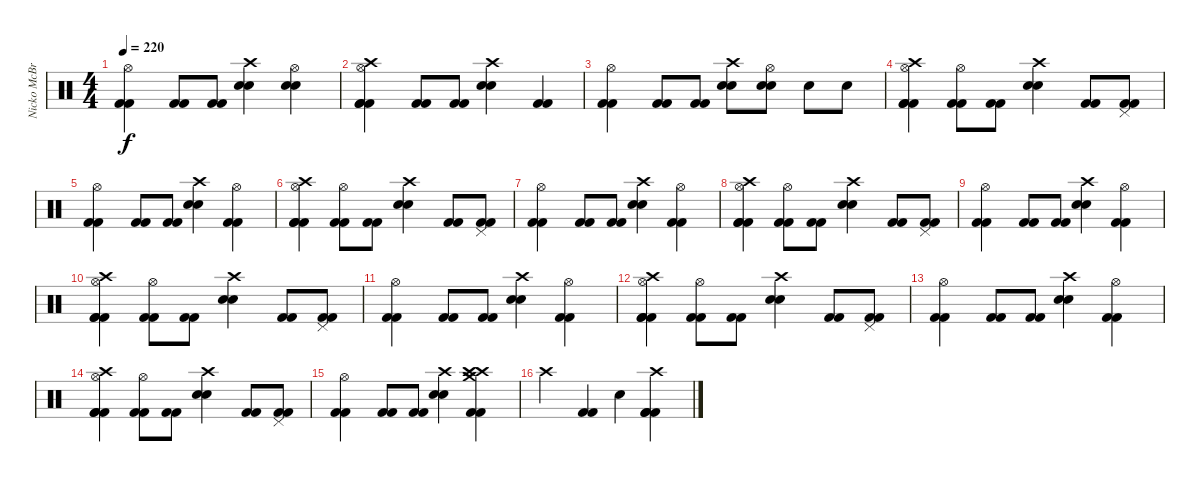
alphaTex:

\track ("Nicko McBrain" "Nicko McBr") {instrument percussion}
\staff {score}
\articulation defaults
\ts (4 4)
\tempo 220
\clef neutral
\ks c
("Hi-Hat (open)" "Kick (hit) 2" "Kick (hit) 2").4{dy f} ("Kick (hit) 2" "Kick (hit) 2").8 ("Kick (hit) 2" "Kick (hit) 2").8 ("Crash high (hit)" "Snare (hit) 2" "Snare (hit) 2").4 ("Hi-Hat (open)" "Snare (hit) 2" "Snare (hit) 2").4 |
("Crash high (hit)" "Hi-Hat (open)" "Kick (hit) 2" "Kick (hit) 2" "Kick (hit) 2").4 ("Kick (hit) 2" "Kick (hit) 2").8 ("Kick (hit) 2" "Kick (hit) 2").8 ("Crash high (hit)" "Snare (hit) 2" "Snare (hit) 2").4 ("Kick (hit) 2" "Kick (hit) 2").4 |
("Hi-Hat (open)" "Kick (hit) 2" "Kick (hit) 2").4 ("Kick (hit) 2" "Kick (hit) 2").8 ("Kick (hit) 2" "Kick (hit) 2").8 ("Crash high (hit)" "Snare (hit) 2" "Snare (hit) 2").8 ("Hi-Hat (open)" "Snare (hit) 2" "Snare (hit) 2").8 "Snare (hit) 2".8 "Snare (hit) 2".8 |
("Crash high (hit)" "Hi-Hat (open)" "Kick (hit) 2" "Kick (hit) 2" "Kick (hit) 2").4 ("Hi-Hat (open)" "Kick (hit) 2" "Kick (hit) 2").8 ("Kick (hit) 2" "Kick (hit) 2").8 ("Crash high (hit)" "Snare (hit) 2" "Snare (hit) 2").4 ("Kick (hit) 2" "Kick (hit) 2").8 ("Pedal Hi-Hat (hit)" "Kick (hit) 2" "Kick (hit) 2").8 |
("Hi-Hat (open)" "Kick (hit) 2" "Kick (hit) 2").4 ("Kick (hit) 2" "Kick (hit) 2").8 ("Kick (hit) 2" "Kick (hit) 2").8 ("Crash high (hit)" "Snare (hit) 2" "Snare (hit) 2").4 ("Hi-Hat (open)" "Kick (hit) 2" "Kick (hit) 2").4 |
("Crash high (hit)" "Hi-Hat (open)" "Kick (hit) 2" "Kick (hit) 2" "Kick (hit) 2").4 ("Hi-Hat (open)" "Kick (hit) 2" "Kick (hit) 2").8 ("Kick (hit) 2" "Kick (hit) 2").8 ("Crash high (hit)" "Snare (hit) 2" "Snare (hit) 2").4 ("Kick (hit) 2" "Kick (hit) 2").8 ("Pedal Hi-Hat (hit)" "Kick (hit) 2" "Kick (hit) 2").8 |
("Hi-Hat (open)" "Kick (hit) 2" "Kick (hit) 2").4 ("Kick (hit) 2" "Kick (hit) 2").8 ("Kick (hit) 2" "Kick (hit) 2").8 ("Crash high (hit)" "Snare (hit) 2" "Snare (hit) 2").4 ("Hi-Hat (open)" "Kick (hit) 2" "Kick (hit) 2").4 |
("Crash high (hit)" "Hi-Hat (open)" "Kick (hit) 2" "Kick (hit) 2" "Kick (hit) 2").4 ("Hi-Hat (open)" "Kick (hit) 2" "Kick (hit) 2").8 ("Kick (hit) 2" "Kick (hit) 2").8 ("Crash high (hit)" "Snare (hit) 2" "Snare (hit) 2").4 ("Kick (hit) 2" "Kick (hit) 2").8 ("Pedal Hi-Hat (hit)" "Kick (hit) 2" "Kick (hit) 2").8 |
("Hi-Hat (open)" "Kick (hit) 2" "Kick (hit) 2").4 ("Kick (hit) 2" "Kick (hit) 2").8 ("Kick (hit) 2" "Kick (hit) 2").8 ("Crash high (hit)" "Snare (hit) 2" "Snare (hit) 2").4 ("Hi-Hat (open)" "Kick (hit) 2" "Kick (hit) 2").4 |
("Crash high (hit)" "Hi-Hat (open)" "Kick (hit) 2" "Kick (hit) 2" "Kick (hit) 2").4 ("Hi-Hat (open)" "Kick (hit) 2" "Kick (hit) 2").8 ("Kick (hit) 2" "Kick (hit) 2").8 ("Crash high (hit)" "Snare (hit) 2" "Snare (hit) 2").4 ("Kick (hit) 2" "Kick (hit) 2").8 ("Pedal Hi-Hat (hit)" "Kick (hit) 2" "Kick (hit) 2").8 |
("Hi-Hat (open)" "Kick (hit) 2" "Kick (hit) 2").4 ("Kick (hit) 2" "Kick (hit) 2").8 ("Kick (hit) 2" "Kick (hit) 2").8 ("Crash high (hit)" "Snare (hit) 2" "Snare (hit) 2").4 ("Hi-Hat (open)" "Kick (hit) 2" "Kick (hit) 2").4 |
("Crash high (hit)" "Hi-Hat (open)" "Kick (hit) 2" "Kick (hit) 2" "Kick (hit) 2").4 ("Hi-Hat (open)" "Kick (hit) 2" "Kick (hit) 2").8 ("Kick (hit) 2" "Kick (hit) 2").8 ("Crash high (hit)" "Snare (hit) 2" "Snare (hit) 2").4 ("Kick (hit) 2" "Kick (hit) 2").8 ("Pedal Hi-Hat (hit)" "Kick (hit) 2" "Kick (hit) 2").8 |
("Hi-Hat (open)" "Kick (hit) 2" "Kick (hit) 2").4 ("Kick (hit) 2" "Kick (hit) 2").8 ("Kick (hit) 2" "Kick (hit) 2").8 ("Crash high (hit)" "Snare (hit) 2" "Snare (hit) 2").4 ("Hi-Hat (open)" "Kick (hit) 2" "Kick (hit) 2").4 |
("Crash high (hit)" "Hi-Hat (open)" "Kick (hit) 2" "Kick (hit) 2" "Kick (hit) 2").4 ("Hi-Hat (open)" "Kick (hit) 2" "Kick (hit) 2").8 ("Kick (hit) 2" "Kick (hit) 2").8 ("Crash high (hit)" "Snare (hit) 2" "Snare (hit) 2").4 ("Kick (hit) 2" "Kick (hit) 2").8 ("Pedal Hi-Hat (hit)" "Kick (hit) 2" "Kick (hit) 2").8 |
("Hi-Hat (open)" "Kick (hit) 2" "Kick (hit) 2").4 ("Kick (hit) 2" "Kick (hit) 2").8 ("Kick (hit) 2" "Kick (hit) 2").8 ("Crash high (hit)" "Snare (hit) 2" "Snare (hit) 2").4 ("Crash high (hit)" "Crash medium (hit)" "Crash high (hit)" "Kick (hit) 2" "Kick (hit) 2").4 |
"Crash high (hit)".4 ("Kick (hit) 2" "Kick (hit) 2").4 "Snare (hit) 2".4 ("Crash high (hit)" "Kick (hit) 2" "Kick (hit) 2" "Kick (hit) 2").4
